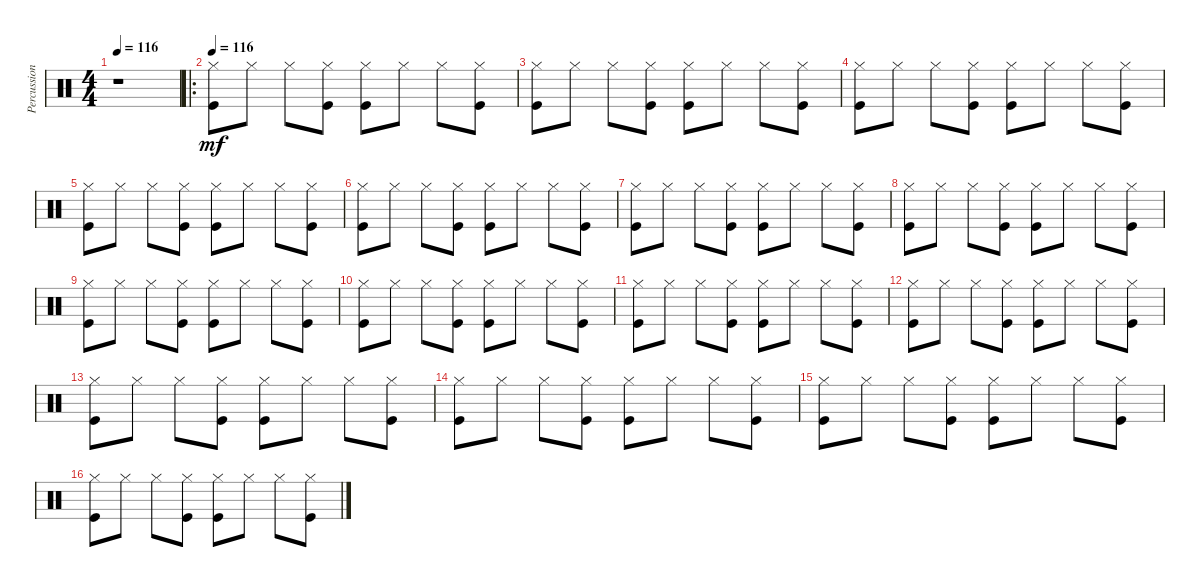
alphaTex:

\track ("Percussions" "Percussion") {instrument percussion}
\staff {score}
\articulation defaults
\ts (4 4)
\tempo 116
\clef neutral
\ks c
r.1{dy mf} |
\ro
\tempo 116
("Hi-Hat (closed)" "Kick (hit)").8{volume 10 balance 8} "Hi-Hat (closed)".8 "Hi-Hat (closed)".8 ("Hi-Hat (closed)" "Kick (hit)").8 ("Hi-Hat (closed)" "Kick (hit)").8 "Hi-Hat (closed)".8 "Hi-Hat (closed)".8 ("Hi-Hat (closed)" "Kick (hit)").8 |
("Hi-Hat (closed)" "Kick (hit)").8 "Hi-Hat (closed)".8 "Hi-Hat (closed)".8 ("Hi-Hat (closed)" "Kick (hit)").8 ("Hi-Hat (closed)" "Kick (hit)").8 "Hi-Hat (closed)".8 "Hi-Hat (closed)".8 ("Hi-Hat (closed)" "Kick (hit)").8 |
("Hi-Hat (closed)" "Kick (hit)").8 "Hi-Hat (closed)".8 "Hi-Hat (closed)".8 ("Hi-Hat (closed)" "Kick (hit)").8 ("Hi-Hat (closed)" "Kick (hit)").8 "Hi-Hat (closed)".8 "Hi-Hat (closed)".8 ("Hi-Hat (closed)" "Kick (hit)").8 |
("Hi-Hat (closed)" "Kick (hit)").8 "Hi-Hat (closed)".8 "Hi-Hat (closed)".8 ("Hi-Hat (closed)" "Kick (hit)").8 ("Hi-Hat (closed)" "Kick (hit)").8 "Hi-Hat (closed)".8 "Hi-Hat (closed)".8 ("Hi-Hat (closed)" "Kick (hit)").8 |
("Hi-Hat (closed)" "Kick (hit)").8 "Hi-Hat (closed)".8 "Hi-Hat (closed)".8 ("Hi-Hat (closed)" "Kick (hit)").8 ("Hi-Hat (closed)" "Kick (hit)").8 "Hi-Hat (closed)".8 "Hi-Hat (closed)".8 ("Hi-Hat (closed)" "Kick (hit)").8 |
("Hi-Hat (closed)" "Kick (hit)").8 "Hi-Hat (closed)".8 "Hi-Hat (closed)".8 ("Hi-Hat (closed)" "Kick (hit)").8 ("Hi-Hat (closed)" "Kick (hit)").8 "Hi-Hat (closed)".8 "Hi-Hat (closed)".8 ("Hi-Hat (closed)" "Kick (hit)").8 |
("Hi-Hat (closed)" "Kick (hit)").8 "Hi-Hat (closed)".8 "Hi-Hat (closed)".8 ("Hi-Hat (closed)" "Kick (hit)").8 ("Hi-Hat (closed)" "Kick (hit)").8 "Hi-Hat (closed)".8 "Hi-Hat (closed)".8 ("Hi-Hat (closed)" "Kick (hit)").8 |
("Hi-Hat (closed)" "Kick (hit)").8 "Hi-Hat (closed)".8 "Hi-Hat (closed)".8 ("Hi-Hat (closed)" "Kick (hit)").8 ("Hi-Hat (closed)" "Kick (hit)").8 "Hi-Hat (closed)".8 "Hi-Hat (closed)".8 ("Hi-Hat (closed)" "Kick (hit)").8 |
("Hi-Hat (closed)" "Kick (hit)").8 "Hi-Hat (closed)".8 "Hi-Hat (closed)".8 ("Hi-Hat (closed)" "Kick (hit)").8 ("Hi-Hat (closed)" "Kick (hit)").8 "Hi-Hat (closed)".8 "Hi-Hat (closed)".8 ("Hi-Hat (closed)" "Kick (hit)").8 |
("Hi-Hat (closed)" "Kick (hit)").8 "Hi-Hat (closed)".8 "Hi-Hat (closed)".8 ("Hi-Hat (closed)" "Kick (hit)").8 ("Hi-Hat (closed)" "Kick (hit)").8 "Hi-Hat (closed)".8 "Hi-Hat (closed)".8 ("Hi-Hat (closed)" "Kick (hit)").8 |
("Hi-Hat (closed)" "Kick (hit)").8 "Hi-Hat (closed)".8 "Hi-Hat (closed)".8 ("Hi-Hat (closed)" "Kick (hit)").8 ("Hi-Hat (closed)" "Kick (hit)").8 "Hi-Hat (closed)".8 "Hi-Hat (closed)".8 ("Hi-Hat (closed)" "Kick (hit)").8 |
("Hi-Hat (closed)" "Kick (hit)").8 "Hi-Hat (closed)".8 "Hi-Hat (closed)".8 ("Hi-Hat (closed)" "Kick (hit)").8 ("Hi-Hat (closed)" "Kick (hit)").8 "Hi-Hat (closed)".8 "Hi-Hat (closed)".8 ("Hi-Hat (closed)" "Kick (hit)").8 |
("Hi-Hat (closed)" "Kick (hit)").8 "Hi-Hat (closed)".8 "Hi-Hat (closed)".8 ("Hi-Hat (closed)" "Kick (hit)").8 ("Hi-Hat (closed)" "Kick (hit)").8 "Hi-Hat (closed)".8 "Hi-Hat (closed)".8 ("Hi-Hat (closed)" "Kick (hit)").8 |
("Hi-Hat (closed)" "Kick (hit)").8 "Hi-Hat (closed)".8 "Hi-Hat (closed)".8 ("Hi-Hat (closed)" "Kick (hit)").8 ("Hi-Hat (closed)" "Kick (hit)").8 "Hi-Hat (closed)".8 "Hi-Hat (closed)".8 ("Hi-Hat (closed)" "Kick (hit)").8 |
("Hi-Hat (closed)" "Kick (hit)").8 "Hi-Hat (closed)".8 "Hi-Hat (closed)".8 ("Hi-Hat (closed)" "Kick (hit)").8 ("Hi-Hat (closed)" "Kick (hit)").8 "Hi-Hat (closed)".8 "Hi-Hat (closed)".8 ("Hi-Hat (closed)" "Kick (hit)").8
